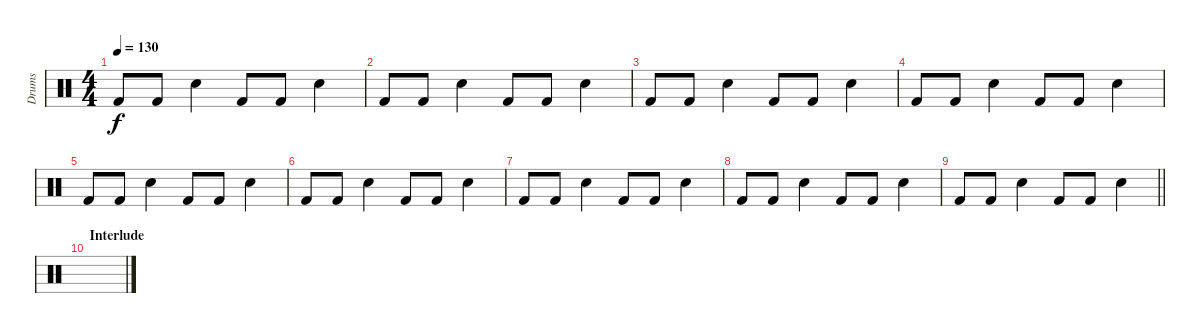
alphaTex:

\track ("Drums" "Drums") {instrument percussion}
\staff {score}
\articulation defaults
\ts (4 4)
\tempo 130
\clef neutral
\ks c "Kick (hit) 2".8{dy f} "Kick (hit) 2".8 "Snare (hit) 2".4 "Kick (hit) 2".8 "Kick (hit) 2".8 "Snare (hit) 2".4
|
"Kick (hit) 2".8 "Kick (hit) 2".8 "Snare (hit) 2".4 "Kick (hit) 2".8 "Kick (hit) 2".8 "Snare (hit) 2".4 |
"Kick (hit) 2".8 "Kick (hit) 2".8 "Snare (hit) 2".4 "Kick (hit) 2".8 "Kick (hit) 2".8 "Snare (hit) 2".4 |
"Kick (hit) 2".8 "Kick (hit) 2".8 "Snare (hit) 2".4 "Kick (hit) 2".8 "Kick (hit) 2".8 "Snare (hit) 2".4 |
"Kick (hit) 2".8 "Kick (hit) 2".8 "Snare (hit) 2".4 "Kick (hit) 2".8 "Kick (hit) 2".8 "Snare (hit) 2".4 |
"Kick (hit) 2".8 "Kick (hit) 2".8 "Snare (hit) 2".4 "Kick (hit) 2".8 "Kick (hit) 2".8 "Snare (hit) 2".4 |
"Kick (hit) 2".8 "Kick (hit) 2".8 "Snare (hit) 2".4 "Kick (hit) 2".8 "Kick (hit) 2".8 "Snare (hit) 2".4 |
"Kick (hit) 2".8 "Kick (hit) 2".8 "Snare (hit) 2".4 "Kick (hit) 2".8 "Kick (hit) 2".8 "Snare (hit) 2".4 |
\barLineRight lightlight "Kick (hit) 2".8 "Kick (hit) 2".8 "Snare (hit) 2".4 "Kick (hit) 2".8 "Kick (hit) 2".8 "Snare (hit) 2".4
|
\section ("" "Interlude")
